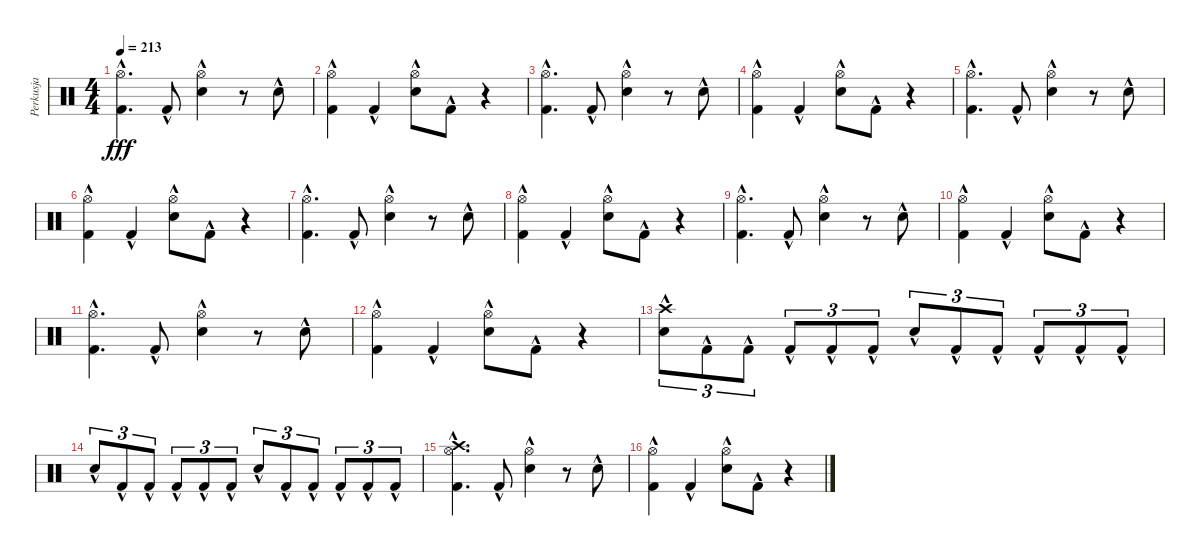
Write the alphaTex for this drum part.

\track ("Perkusja" "Perkusja") {instrument percussion}
\staff {score}
\articulation defaults
\ts (4 4)
\tempo 213
\clef neutral
\ks c
("Hi-Hat (open)" "Kick (hit) 2"{hac}).4{d dy fff} "Kick (hit) 2"{hac}.8 ("Hi-Hat (open)" "Electric Snare (hit)"{hac}).4 r.8 "Electric Snare (hit)"{hac}.8 |
("Hi-Hat (open)" "Kick (hit) 2"{hac}).4 "Kick (hit) 2"{hac}.4 ("Hi-Hat (open)" "Electric Snare (hit)"{hac}).8 "Kick (hit) 2"{hac}.8 r.4 |
("Hi-Hat (open)" "Kick (hit) 2"{hac}).4{d} "Kick (hit) 2"{hac}.8 ("Hi-Hat (open)" "Electric Snare (hit)"{hac}).4 r.8 "Electric Snare (hit)"{hac}.8 |
("Hi-Hat (open)" "Kick (hit) 2"{hac}).4 "Kick (hit) 2"{hac}.4 ("Hi-Hat (open)" "Electric Snare (hit)"{hac}).8 "Kick (hit) 2"{hac}.8 r.4 |
("Hi-Hat (open)" "Kick (hit) 2"{hac}).4{d} "Kick (hit) 2"{hac}.8 ("Hi-Hat (open)" "Electric Snare (hit)"{hac}).4 r.8 "Electric Snare (hit)"{hac}.8 |
("Hi-Hat (open)" "Kick (hit) 2"{hac}).4 "Kick (hit) 2"{hac}.4 ("Hi-Hat (open)" "Electric Snare (hit)"{hac}).8 "Kick (hit) 2"{hac}.8 r.4 |
("Hi-Hat (open)" "Kick (hit) 2"{hac}).4{d} "Kick (hit) 2"{hac}.8 ("Hi-Hat (open)" "Electric Snare (hit)"{hac}).4 r.8 "Electric Snare (hit)"{hac}.8 |
("Hi-Hat (open)" "Kick (hit) 2"{hac}).4 "Kick (hit) 2"{hac}.4 ("Hi-Hat (open)" "Electric Snare (hit)"{hac}).8 "Kick (hit) 2"{hac}.8 r.4 |
("Hi-Hat (open)" "Kick (hit) 2"{hac}).4{d} "Kick (hit) 2"{hac}.8 ("Hi-Hat (open)" "Electric Snare (hit)"{hac}).4 r.8 "Electric Snare (hit)"{hac}.8 |
("Hi-Hat (open)" "Kick (hit) 2"{hac}).4 "Kick (hit) 2"{hac}.4 ("Hi-Hat (open)" "Electric Snare (hit)"{hac}).8 "Kick (hit) 2"{hac}.8 r.4 |
("Hi-Hat (open)" "Kick (hit) 2"{hac}).4{d} "Kick (hit) 2"{hac}.8 ("Hi-Hat (open)" "Electric Snare (hit)"{hac}).4 r.8 "Electric Snare (hit)"{hac}.8 |
("Hi-Hat (open)" "Kick (hit) 2"{hac}).4 "Kick (hit) 2"{hac}.4 ("Hi-Hat (open)" "Electric Snare (hit)"{hac}).8 "Kick (hit) 2"{hac}.8 r.4 |
("Crash high (hit)" "Electric Snare (hit)"{hac}).8{tu (3 2)} "Kick (hit) 2"{hac}.8{tu (3 2)} "Kick (hit) 2"{hac}.8{tu (3 2)} "Kick (hit) 2"{hac}.8{tu (3 2)} "Kick (hit) 2"{hac}.8{tu (3 2)} "Kick (hit) 2"{hac}.8{tu (3 2)} "Electric Snare (hit)"{hac}.8{tu (3 2)} "Kick (hit) 2"{hac}.8{tu (3 2)} "Kick (hit) 2"{hac}.8{tu (3 2)} "Kick (hit) 2"{hac}.8{tu (3 2)} "Kick (hit) 2"{hac}.8{tu (3 2)} "Kick (hit) 2"{hac}.8{tu (3 2)} |
"Electric Snare (hit)"{hac}.8{tu (3 2)} "Kick (hit) 2"{hac}.8{tu (3 2)} "Kick (hit) 2"{hac}.8{tu (3 2)} "Kick (hit) 2"{hac}.8{tu (3 2)} "Kick (hit) 2"{hac}.8{tu (3 2)} "Kick (hit) 2"{hac}.8{tu (3 2)} "Electric Snare (hit)"{hac}.8{tu (3 2)} "Kick (hit) 2"{hac}.8{tu (3 2)} "Kick (hit) 2"{hac}.8{tu (3 2)} "Kick (hit) 2"{hac}.8{tu (3 2)} "Kick (hit) 2"{hac}.8{tu (3 2)} "Kick (hit) 2"{hac}.8{tu (3 2)} |
("Crash high (hit)" "Hi-Hat (open)" "Kick (hit) 2"{hac}).4{d} "Kick (hit) 2"{hac}.8 ("Hi-Hat (open)" "Electric Snare (hit)"{hac}).4 r.8 "Electric Snare (hit)"{hac}.8 |
("Hi-Hat (open)" "Kick (hit) 2"{hac}).4 "Kick (hit) 2"{hac}.4 ("Hi-Hat (open)" "Electric Snare (hit)"{hac}).8 "Kick (hit) 2"{hac}.8 r.4
